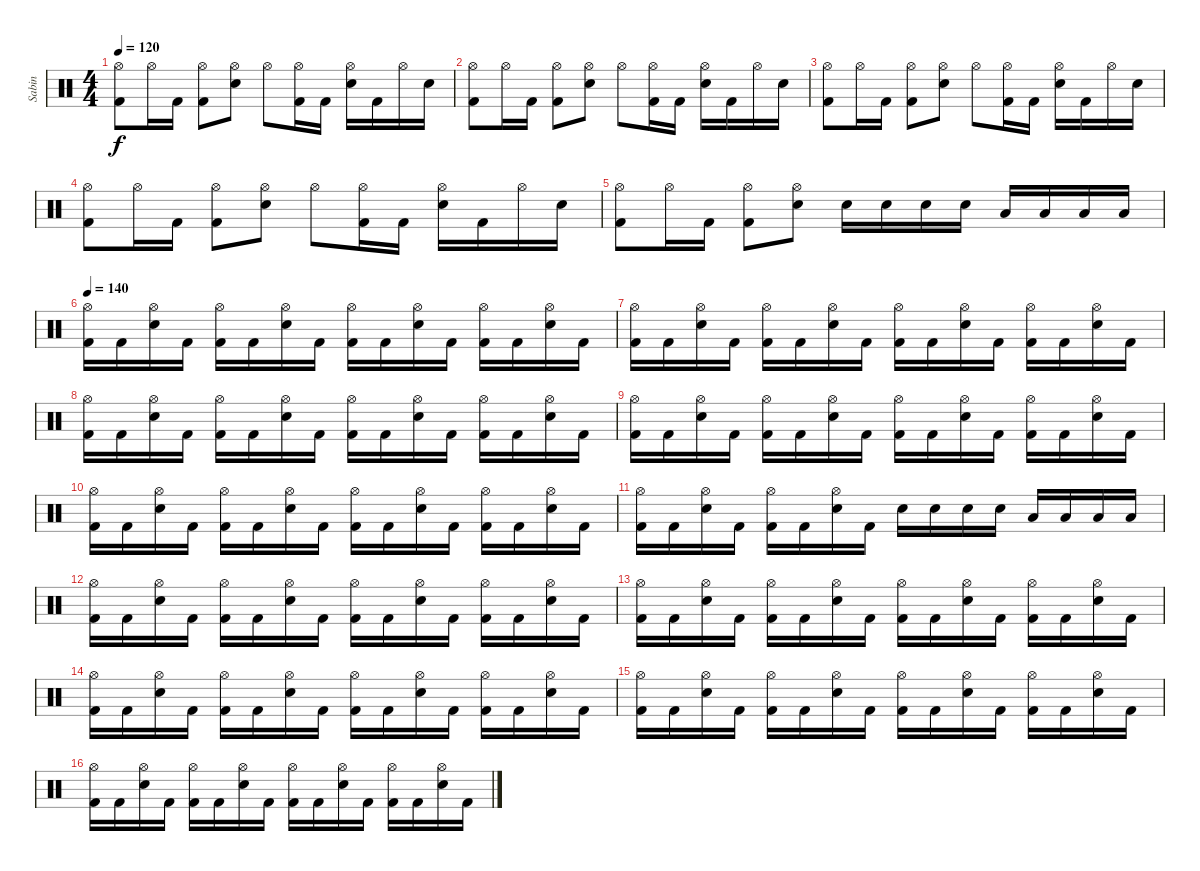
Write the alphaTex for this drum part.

\track ("Sabin" "Sabin") {instrument percussion}
\staff {score}
\articulation defaults
\ts (4 4)
\tempo 120
\clef neutral
\ks c
("Hi-Hat (open)" "Kick (hit) 2").8{dy f} "Hi-Hat (open)".16 "Kick (hit) 2".16 ("Hi-Hat (open)" "Kick (hit) 2").8 ("Snare (hit) 2" "Hi-Hat (open)").8 "Hi-Hat (open)".8 ("Hi-Hat (open)" "Kick (hit) 2").16 "Kick (hit) 2".16 ("Hi-Hat (open)" "Snare (hit) 2").16 "Kick (hit) 2".16 "Hi-Hat (open)".16 "Snare (hit) 2".16 |
("Hi-Hat (open)" "Kick (hit) 2").8 "Hi-Hat (open)".16 "Kick (hit) 2".16 ("Hi-Hat (open)" "Kick (hit) 2").8 ("Snare (hit) 2" "Hi-Hat (open)").8 "Hi-Hat (open)".8 ("Hi-Hat (open)" "Kick (hit) 2").16 "Kick (hit) 2".16 ("Hi-Hat (open)" "Snare (hit) 2").16 "Kick (hit) 2".16 "Hi-Hat (open)".16 "Snare (hit) 2".16 |
("Hi-Hat (open)" "Kick (hit) 2").8 "Hi-Hat (open)".16 "Kick (hit) 2".16 ("Hi-Hat (open)" "Kick (hit) 2").8 ("Snare (hit) 2" "Hi-Hat (open)").8 "Hi-Hat (open)".8 ("Hi-Hat (open)" "Kick (hit) 2").16 "Kick (hit) 2".16 ("Hi-Hat (open)" "Snare (hit) 2").16 "Kick (hit) 2".16 "Hi-Hat (open)".16 "Snare (hit) 2".16 |
("Hi-Hat (open)" "Kick (hit) 2").8 "Hi-Hat (open)".16 "Kick (hit) 2".16 ("Hi-Hat (open)" "Kick (hit) 2").8 ("Snare (hit) 2" "Hi-Hat (open)").8 "Hi-Hat (open)".8 ("Hi-Hat (open)" "Kick (hit) 2").16 "Kick (hit) 2".16 ("Hi-Hat (open)" "Snare (hit) 2").16 "Kick (hit) 2".16 "Hi-Hat (open)".16 "Snare (hit) 2".16 |
("Hi-Hat (open)" "Kick (hit) 2").8 "Hi-Hat (open)".16 "Kick (hit) 2".16 ("Hi-Hat (open)" "Kick (hit) 2").8 ("Snare (hit) 2" "Hi-Hat (open)").8 "Snare (hit) 2".16 "Snare (hit) 2".16 "Snare (hit) 2".16 "Snare (hit) 2".16 "Low Floor Tom (hit)".16 "Low Floor Tom (hit)".16 "Low Floor Tom (hit)".16 "Low Floor Tom (hit)".16 |
\tempo 140
("Hi-Hat (open)" "Kick (hit) 2").16 "Kick (hit) 2".16 ("Hi-Hat (open)" "Snare (hit) 2").16 "Kick (hit) 2".16 ("Hi-Hat (open)" "Kick (hit) 2").16 "Kick (hit) 2".16 ("Hi-Hat (open)" "Snare (hit) 2").16 "Kick (hit) 2".16 ("Hi-Hat (open)" "Kick (hit) 2").16 "Kick (hit) 2".16 ("Hi-Hat (open)" "Snare (hit) 2").16 "Kick (hit) 2".16 ("Hi-Hat (open)" "Kick (hit) 2").16 "Kick (hit) 2".16 ("Hi-Hat (open)" "Snare (hit) 2").16 "Kick (hit) 2".16 |
("Hi-Hat (open)" "Kick (hit) 2").16 "Kick (hit) 2".16 ("Hi-Hat (open)" "Snare (hit) 2").16 "Kick (hit) 2".16 ("Hi-Hat (open)" "Kick (hit) 2").16 "Kick (hit) 2".16 ("Hi-Hat (open)" "Snare (hit) 2").16 "Kick (hit) 2".16 ("Hi-Hat (open)" "Kick (hit) 2").16 "Kick (hit) 2".16 ("Hi-Hat (open)" "Snare (hit) 2").16 "Kick (hit) 2".16 ("Hi-Hat (open)" "Kick (hit) 2").16 "Kick (hit) 2".16 ("Hi-Hat (open)" "Snare (hit) 2").16 "Kick (hit) 2".16 |
("Hi-Hat (open)" "Kick (hit) 2").16 "Kick (hit) 2".16 ("Hi-Hat (open)" "Snare (hit) 2").16 "Kick (hit) 2".16 ("Hi-Hat (open)" "Kick (hit) 2").16 "Kick (hit) 2".16 ("Hi-Hat (open)" "Snare (hit) 2").16 "Kick (hit) 2".16 ("Hi-Hat (open)" "Kick (hit) 2").16 "Kick (hit) 2".16 ("Hi-Hat (open)" "Snare (hit) 2").16 "Kick (hit) 2".16 ("Hi-Hat (open)" "Kick (hit) 2").16 "Kick (hit) 2".16 ("Hi-Hat (open)" "Snare (hit) 2").16 "Kick (hit) 2".16 |
("Hi-Hat (open)" "Kick (hit) 2").16 "Kick (hit) 2".16 ("Hi-Hat (open)" "Snare (hit) 2").16 "Kick (hit) 2".16 ("Hi-Hat (open)" "Kick (hit) 2").16 "Kick (hit) 2".16 ("Hi-Hat (open)" "Snare (hit) 2").16 "Kick (hit) 2".16 ("Hi-Hat (open)" "Kick (hit) 2").16 "Kick (hit) 2".16 ("Hi-Hat (open)" "Snare (hit) 2").16 "Kick (hit) 2".16 ("Hi-Hat (open)" "Kick (hit) 2").16 "Kick (hit) 2".16 ("Hi-Hat (open)" "Snare (hit) 2").16 "Kick (hit) 2".16 |
("Hi-Hat (open)" "Kick (hit) 2").16 "Kick (hit) 2".16 ("Hi-Hat (open)" "Snare (hit) 2").16 "Kick (hit) 2".16 ("Hi-Hat (open)" "Kick (hit) 2").16 "Kick (hit) 2".16 ("Hi-Hat (open)" "Snare (hit) 2").16 "Kick (hit) 2".16 ("Hi-Hat (open)" "Kick (hit) 2").16 "Kick (hit) 2".16 ("Hi-Hat (open)" "Snare (hit) 2").16 "Kick (hit) 2".16 ("Hi-Hat (open)" "Kick (hit) 2").16 "Kick (hit) 2".16 ("Hi-Hat (open)" "Snare (hit) 2").16 "Kick (hit) 2".16 |
("Hi-Hat (open)" "Kick (hit) 2").16 "Kick (hit) 2".16 ("Hi-Hat (open)" "Snare (hit) 2").16 "Kick (hit) 2".16 ("Hi-Hat (open)" "Kick (hit) 2").16 "Kick (hit) 2".16 ("Hi-Hat (open)" "Snare (hit) 2").16 "Kick (hit) 2".16 "Snare (hit) 2".16 "Snare (hit) 2".16 "Snare (hit) 2".16 "Snare (hit) 2".16 "Low Floor Tom (hit)".16 "Low Floor Tom (hit)".16 "Low Floor Tom (hit)".16 "Low Floor Tom (hit)".16 |
("Hi-Hat (open)" "Kick (hit) 2").16 "Kick (hit) 2".16 ("Hi-Hat (open)" "Snare (hit) 2").16 "Kick (hit) 2".16 ("Hi-Hat (open)" "Kick (hit) 2").16 "Kick (hit) 2".16 ("Hi-Hat (open)" "Snare (hit) 2").16 "Kick (hit) 2".16 ("Hi-Hat (open)" "Kick (hit) 2").16 "Kick (hit) 2".16 ("Hi-Hat (open)" "Snare (hit) 2").16 "Kick (hit) 2".16 ("Hi-Hat (open)" "Kick (hit) 2").16 "Kick (hit) 2".16 ("Hi-Hat (open)" "Snare (hit) 2").16 "Kick (hit) 2".16 |
("Hi-Hat (open)" "Kick (hit) 2").16 "Kick (hit) 2".16 ("Hi-Hat (open)" "Snare (hit) 2").16 "Kick (hit) 2".16 ("Hi-Hat (open)" "Kick (hit) 2").16 "Kick (hit) 2".16 ("Hi-Hat (open)" "Snare (hit) 2").16 "Kick (hit) 2".16 ("Hi-Hat (open)" "Kick (hit) 2").16 "Kick (hit) 2".16 ("Hi-Hat (open)" "Snare (hit) 2").16 "Kick (hit) 2".16 ("Hi-Hat (open)" "Kick (hit) 2").16 "Kick (hit) 2".16 ("Hi-Hat (open)" "Snare (hit) 2").16 "Kick (hit) 2".16 |
("Hi-Hat (open)" "Kick (hit) 2").16 "Kick (hit) 2".16 ("Hi-Hat (open)" "Snare (hit) 2").16 "Kick (hit) 2".16 ("Hi-Hat (open)" "Kick (hit) 2").16 "Kick (hit) 2".16 ("Hi-Hat (open)" "Snare (hit) 2").16 "Kick (hit) 2".16 ("Hi-Hat (open)" "Kick (hit) 2").16 "Kick (hit) 2".16 ("Hi-Hat (open)" "Snare (hit) 2").16 "Kick (hit) 2".16 ("Hi-Hat (open)" "Kick (hit) 2").16 "Kick (hit) 2".16 ("Hi-Hat (open)" "Snare (hit) 2").16 "Kick (hit) 2".16 |
("Hi-Hat (open)" "Kick (hit) 2").16 "Kick (hit) 2".16 ("Hi-Hat (open)" "Snare (hit) 2").16 "Kick (hit) 2".16 ("Hi-Hat (open)" "Kick (hit) 2").16 "Kick (hit) 2".16 ("Hi-Hat (open)" "Snare (hit) 2").16 "Kick (hit) 2".16 ("Hi-Hat (open)" "Kick (hit) 2").16 "Kick (hit) 2".16 ("Hi-Hat (open)" "Snare (hit) 2").16 "Kick (hit) 2".16 ("Hi-Hat (open)" "Kick (hit) 2").16 "Kick (hit) 2".16 ("Hi-Hat (open)" "Snare (hit) 2").16 "Kick (hit) 2".16 |
("Hi-Hat (open)" "Kick (hit) 2").16 "Kick (hit) 2".16 ("Hi-Hat (open)" "Snare (hit) 2").16 "Kick (hit) 2".16 ("Hi-Hat (open)" "Kick (hit) 2").16 "Kick (hit) 2".16 ("Hi-Hat (open)" "Snare (hit) 2").16 "Kick (hit) 2".16 ("Hi-Hat (open)" "Kick (hit) 2").16 "Kick (hit) 2".16 ("Hi-Hat (open)" "Snare (hit) 2").16 "Kick (hit) 2".16 ("Hi-Hat (open)" "Kick (hit) 2").16 "Kick (hit) 2".16 ("Hi-Hat (open)" "Snare (hit) 2").16 "Kick (hit) 2".16
